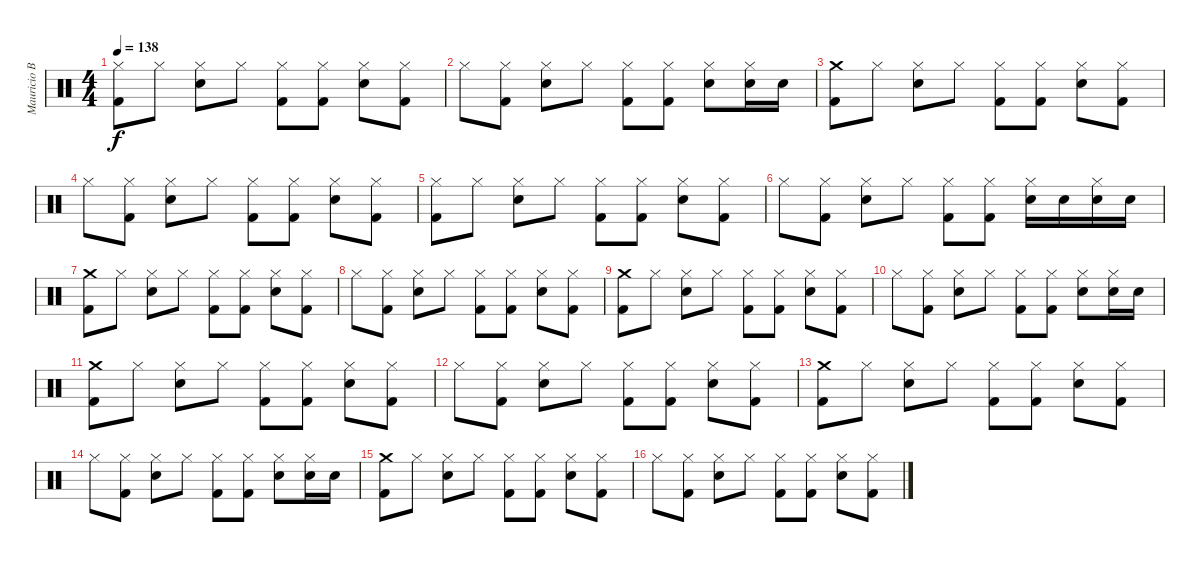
\track ("Mauricio Basualto" "Mauricio B") {instrument percussion}
\staff {score}
\articulation defaults
\ts (4 4)
\tempo 138
\clef neutral
\ks c
("Hi-Hat (closed)" "Kick (hit) 2").8{dy f} "Hi-Hat (closed)".8 ("Hi-Hat (closed)" "Snare (hit) 2").8 "Hi-Hat (closed)".8 ("Hi-Hat (closed)" "Kick (hit) 2").8 ("Hi-Hat (closed)" "Kick (hit) 2").8 ("Hi-Hat (closed)" "Snare (hit) 2").8 ("Hi-Hat (closed)" "Kick (hit) 2").8 |
"Hi-Hat (closed)".8 ("Hi-Hat (closed)" "Kick (hit) 2").8 ("Hi-Hat (closed)" "Snare (hit) 2").8 "Hi-Hat (closed)".8 ("Hi-Hat (closed)" "Kick (hit) 2").8 ("Hi-Hat (closed)" "Kick (hit) 2").8 ("Hi-Hat (closed)" "Snare (hit) 2").8 ("Hi-Hat (closed)" "Snare (hit) 2").16 "Snare (hit) 2".16 |
("Crash medium (hit)" "Kick (hit) 2").8 "Hi-Hat (closed)".8 ("Hi-Hat (closed)" "Snare (hit) 2").8 "Hi-Hat (closed)".8 ("Hi-Hat (closed)" "Kick (hit) 2").8 ("Hi-Hat (closed)" "Kick (hit) 2").8 ("Hi-Hat (closed)" "Snare (hit) 2").8 ("Hi-Hat (closed)" "Kick (hit) 2").8 |
"Hi-Hat (closed)".8 ("Hi-Hat (closed)" "Kick (hit) 2").8 ("Hi-Hat (closed)" "Snare (hit) 2").8 "Hi-Hat (closed)".8 ("Hi-Hat (closed)" "Kick (hit) 2").8 ("Hi-Hat (closed)" "Kick (hit) 2").8 ("Hi-Hat (closed)" "Snare (hit) 2").8 ("Hi-Hat (closed)" "Kick (hit) 2").8 |
("Hi-Hat (closed)" "Kick (hit) 2").8 "Hi-Hat (closed)".8 ("Hi-Hat (closed)" "Snare (hit) 2").8 "Hi-Hat (closed)".8 ("Hi-Hat (closed)" "Kick (hit) 2").8 ("Hi-Hat (closed)" "Kick (hit) 2").8 ("Hi-Hat (closed)" "Snare (hit) 2").8 ("Hi-Hat (closed)" "Kick (hit) 2").8 |
"Hi-Hat (closed)".8 ("Hi-Hat (closed)" "Kick (hit) 2").8 ("Hi-Hat (closed)" "Snare (hit) 2").8 "Hi-Hat (closed)".8 ("Hi-Hat (closed)" "Kick (hit) 2").8 ("Hi-Hat (closed)" "Kick (hit) 2").8 ("Hi-Hat (closed)" "Snare (hit) 2").16 "Snare (hit) 2".16 ("Hi-Hat (closed)" "Snare (hit) 2").16 "Snare (hit) 2".16 |
("Crash medium (hit)" "Kick (hit) 2").8 "Hi-Hat (closed)".8 ("Hi-Hat (closed)" "Snare (hit) 2").8 "Hi-Hat (closed)".8 ("Hi-Hat (closed)" "Kick (hit) 2").8 ("Hi-Hat (closed)" "Kick (hit) 2").8 ("Hi-Hat (closed)" "Snare (hit) 2").8 ("Hi-Hat (closed)" "Kick (hit) 2").8 |
"Hi-Hat (closed)".8 ("Hi-Hat (closed)" "Kick (hit) 2").8 ("Hi-Hat (closed)" "Snare (hit) 2").8 "Hi-Hat (closed)".8 ("Hi-Hat (closed)" "Kick (hit) 2").8 ("Hi-Hat (closed)" "Kick (hit) 2").8 ("Hi-Hat (closed)" "Snare (hit) 2").8 ("Hi-Hat (closed)" "Kick (hit) 2").8 |
("Crash medium (hit)" "Kick (hit) 2").8 "Hi-Hat (closed)".8 ("Hi-Hat (closed)" "Snare (hit) 2").8 "Hi-Hat (closed)".8 ("Hi-Hat (closed)" "Kick (hit) 2").8 ("Hi-Hat (closed)" "Kick (hit) 2").8 ("Hi-Hat (closed)" "Snare (hit) 2").8 ("Hi-Hat (closed)" "Kick (hit) 2").8 |
"Hi-Hat (closed)".8 ("Hi-Hat (closed)" "Kick (hit) 2").8 ("Hi-Hat (closed)" "Snare (hit) 2").8 "Hi-Hat (closed)".8 ("Hi-Hat (closed)" "Kick (hit) 2").8 ("Hi-Hat (closed)" "Kick (hit) 2").8 ("Hi-Hat (closed)" "Snare (hit) 2").8 ("Hi-Hat (closed)" "Snare (hit) 2").16 "Snare (hit) 2".16 |
("Crash medium (hit)" "Kick (hit) 2").8 "Hi-Hat (closed)".8 ("Hi-Hat (closed)" "Snare (hit) 2").8 "Hi-Hat (closed)".8 ("Hi-Hat (closed)" "Kick (hit) 2").8 ("Hi-Hat (closed)" "Kick (hit) 2").8 ("Hi-Hat (closed)" "Snare (hit) 2").8 ("Hi-Hat (closed)" "Kick (hit) 2").8 |
"Hi-Hat (closed)".8 ("Hi-Hat (closed)" "Kick (hit) 2").8 ("Hi-Hat (closed)" "Snare (hit) 2").8 "Hi-Hat (closed)".8 ("Hi-Hat (closed)" "Kick (hit) 2").8 ("Hi-Hat (closed)" "Kick (hit) 2").8 ("Hi-Hat (closed)" "Snare (hit) 2").8 ("Hi-Hat (closed)" "Kick (hit) 2").8 |
("Crash medium (hit)" "Kick (hit) 2").8 "Hi-Hat (closed)".8 ("Hi-Hat (closed)" "Snare (hit) 2").8 "Hi-Hat (closed)".8 ("Hi-Hat (closed)" "Kick (hit) 2").8 ("Hi-Hat (closed)" "Kick (hit) 2").8 ("Hi-Hat (closed)" "Snare (hit) 2").8 ("Hi-Hat (closed)" "Kick (hit) 2").8 |
"Hi-Hat (closed)".8 ("Hi-Hat (closed)" "Kick (hit) 2").8 ("Hi-Hat (closed)" "Snare (hit) 2").8 "Hi-Hat (closed)".8 ("Hi-Hat (closed)" "Kick (hit) 2").8 ("Hi-Hat (closed)" "Kick (hit) 2").8 ("Hi-Hat (closed)" "Snare (hit) 2").8 ("Hi-Hat (closed)" "Snare (hit) 2").16 "Snare (hit) 2".16 |
("Crash medium (hit)" "Kick (hit) 2").8 "Hi-Hat (closed)".8 ("Hi-Hat (closed)" "Snare (hit) 2").8 "Hi-Hat (closed)".8 ("Hi-Hat (closed)" "Kick (hit) 2").8 ("Hi-Hat (closed)" "Kick (hit) 2").8 ("Hi-Hat (closed)" "Snare (hit) 2").8 ("Hi-Hat (closed)" "Kick (hit) 2").8 |
"Hi-Hat (closed)".8 ("Hi-Hat (closed)" "Kick (hit) 2").8 ("Hi-Hat (closed)" "Snare (hit) 2").8 "Hi-Hat (closed)".8 ("Hi-Hat (closed)" "Kick (hit) 2").8 ("Hi-Hat (closed)" "Kick (hit) 2").8 ("Hi-Hat (closed)" "Snare (hit) 2").8 ("Hi-Hat (closed)" "Kick (hit) 2").8
